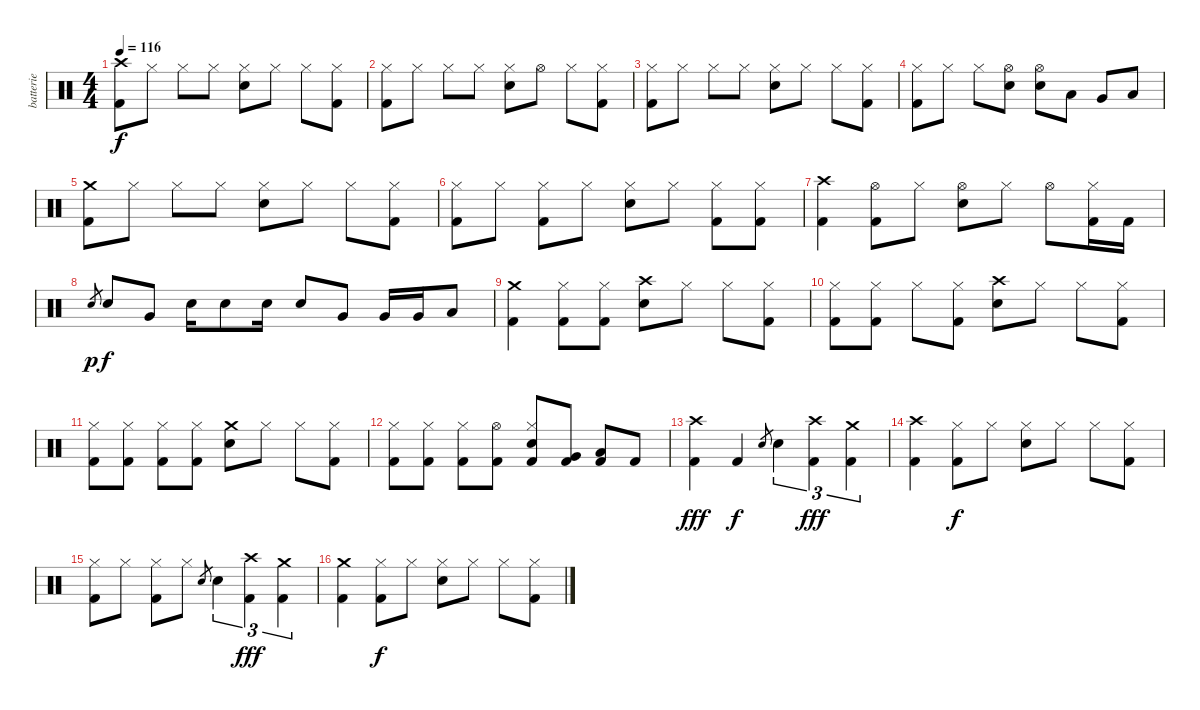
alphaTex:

\track ("batterie" "batterie") {instrument percussion}
\staff {score}
\articulation defaults
\ts (4 4)
\tempo 116
\clef neutral
\ks c
("Kick (hit) 2" "Crash high (hit)").8{dy f} "Hi-Hat (closed)".8 "Hi-Hat (closed)".8 "Hi-Hat (closed)".8 ("Electric Snare (hit)" "Hi-Hat (closed)").8 "Hi-Hat (closed)".8 "Hi-Hat (closed)".8 ("Kick (hit) 2" "Hi-Hat (closed)").8 |
("Kick (hit) 2" "Hi-Hat (closed)").8 "Hi-Hat (closed)".8 "Hi-Hat (closed)".8 "Hi-Hat (closed)".8 ("Electric Snare (hit)" "Hi-Hat (closed)").8 "Hi-Hat (open)".8 "Hi-Hat (closed)".8 ("Kick (hit) 2" "Hi-Hat (closed)").8 |
("Kick (hit) 2" "Hi-Hat (closed)").8 "Hi-Hat (closed)".8 "Hi-Hat (closed)".8 "Hi-Hat (closed)".8 ("Electric Snare (hit)" "Hi-Hat (closed)").8 "Hi-Hat (closed)".8 "Hi-Hat (closed)".8 ("Kick (hit) 2" "Hi-Hat (closed)").8 |
("Kick (hit) 2" "Hi-Hat (closed)").8 "Hi-Hat (closed)".8 "Hi-Hat (closed)".8 ("Electric Snare (hit)" "Hi-Hat (open)").8 ("Electric Snare (hit)" "Hi-Hat (open)").8 "Low Tom (hit)".8 "Very Low Tom (hit)".8 "Low Floor Tom (hit)".8 |
("Kick (hit) 2" "Crash medium (hit)").8 "Hi-Hat (closed)".8 "Hi-Hat (closed)".8 "Hi-Hat (closed)".8 ("Electric Snare (hit)" "Hi-Hat (closed)").8 "Hi-Hat (closed)".8 "Hi-Hat (closed)".8 ("Kick (hit) 2" "Hi-Hat (closed)").8 |
("Kick (hit) 2" "Hi-Hat (closed)").8 "Hi-Hat (closed)".8 ("Kick (hit) 2" "Hi-Hat (closed)").8 "Hi-Hat (closed)".8 ("Electric Snare (hit)" "Hi-Hat (closed)").8 "Hi-Hat (closed)".8 ("Kick (hit) 2" "Hi-Hat (closed)").8 ("Kick (hit) 2" "Hi-Hat (closed)").8 |
("Kick (hit) 2" "Crash high (hit)").4 ("Kick (hit) 2" "Hi-Hat (open)").8 "Hi-Hat (closed)".8 ("Electric Snare (hit)" "Hi-Hat (open)").8 "Hi-Hat (closed)".8 "Hi-Hat (open)".8 ("Kick (hit) 2" "Hi-Hat (closed)").16 "Kick (hit) 2".16 |
"Electric Snare (hit)".8{gr dy p} "Electric Snare (hit)".8{dy f} "Very Low Tom (hit)".8 "Electric Snare (hit)".16 "Electric Snare (hit)".8 "Electric Snare (hit)".16 "Electric Snare (hit)".8 "Very Low Tom (hit)".8 "Very Low Tom (hit)".16 "Very Low Tom (hit)".16 "Low Floor Tom (hit)".8 |
("Kick (hit) 2" "Crash medium (hit)").4 ("Kick (hit) 2" "Hi-Hat (closed)").8 ("Kick (hit) 2" "Hi-Hat (closed)").8 ("Electric Snare (hit)" "Crash high (hit)").8 "Hi-Hat (closed)".8 "Hi-Hat (closed)".8 ("Kick (hit) 2" "Hi-Hat (closed)").8 |
("Kick (hit) 2" "Hi-Hat (closed)").8 ("Kick (hit) 2" "Hi-Hat (closed)").8 "Hi-Hat (closed)".8 ("Kick (hit) 2" "Hi-Hat (closed)").8 ("Electric Snare (hit)" "Crash high (hit)").8 "Hi-Hat (closed)".8 "Hi-Hat (closed)".8 ("Kick (hit) 2" "Hi-Hat (closed)").8 |
("Kick (hit) 2" "Hi-Hat (closed)").8 ("Kick (hit) 2" "Hi-Hat (closed)").8 ("Kick (hit) 2" "Hi-Hat (closed)").8 ("Kick (hit) 2" "Hi-Hat (closed)").8 ("Electric Snare (hit)" "Crash medium (hit)").8 "Hi-Hat (closed)".8 "Hi-Hat (closed)".8 ("Kick (hit) 2" "Hi-Hat (closed)").8 |
("Kick (hit) 2" "Hi-Hat (closed)").8 ("Kick (hit) 2" "Hi-Hat (closed)").8 ("Kick (hit) 2" "Hi-Hat (closed)").8 ("Kick (hit) 2" "Hi-Hat (open)").8 ("Kick (hit) 2" "Electric Snare (hit)" "Hi-Hat (closed)").8 ("Kick (hit) 2" "Very Low Tom (hit)").8 ("Kick (hit) 2" "Low Floor Tom (hit)").8 "Kick (hit) 2".8 |
("Kick (hit) 2" "Crash high (hit)").4{dy fff} "Kick (hit) 2".4{dy f} "Electric Snare (hit)".8{gr} "Electric Snare (hit)".4{tu (3 2)} ("Kick (hit) 2" "Crash high (hit)").4{tu (3 2) dy fff} ("Kick (hit) 2" "Crash medium (hit)").4{tu (3 2)} |
("Kick (hit) 2" "Crash high (hit)").4 ("Kick (hit) 2" "Hi-Hat (closed)").8{dy f} "Hi-Hat (closed)".8 ("Electric Snare (hit)" "Hi-Hat (closed)").8 "Hi-Hat (closed)".8 "Hi-Hat (closed)".8 ("Kick (hit) 2" "Hi-Hat (closed)").8 |
("Kick (hit) 2" "Hi-Hat (closed)").8 "Hi-Hat (closed)".8 ("Kick (hit) 2" "Hi-Hat (closed)").8 "Hi-Hat (closed)".8 "Electric Snare (hit)".8{gr} "Electric Snare (hit)".4{tu (3 2)} ("Kick (hit) 2" "Crash high (hit)").4{tu (3 2) dy fff} ("Kick (hit) 2" "Crash medium (hit)").4{tu (3 2)} |
("Kick (hit) 2" "Crash medium (hit)").4 ("Kick (hit) 2" "Hi-Hat (closed)").8{dy f} "Hi-Hat (closed)".8 ("Electric Snare (hit)" "Hi-Hat (closed)").8 "Hi-Hat (closed)".8 "Hi-Hat (closed)".8 ("Kick (hit) 2" "Hi-Hat (closed)").8
